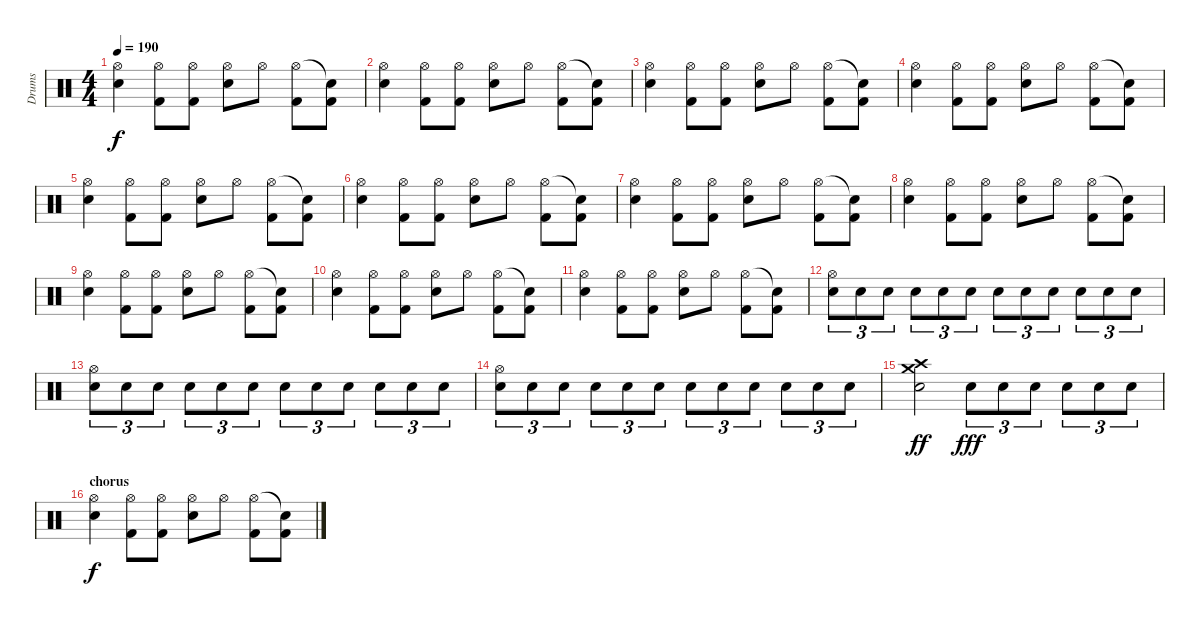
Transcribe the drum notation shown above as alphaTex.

\track ("Drums" "Drums") {instrument percussion}
\staff {score}
\articulation defaults
\ts (4 4)
\tempo 190
\clef neutral
\ks c
("Electric Snare (hit)" "Hi-Hat (open)").4{dy f} ("Hi-Hat (open)" "Kick (hit) 2").8 ("Hi-Hat (open)" "Kick (hit) 2").8 ("Hi-Hat (open)" "Electric Snare (hit)").8 "Hi-Hat (open)".8 ("Kick (hit) 2" "Hi-Hat (open)").8 ("Kick (hit) 2" "Snare (hit)"{t}).8 |
("Electric Snare (hit)" "Hi-Hat (open)").4 ("Hi-Hat (open)" "Kick (hit) 2").8 ("Hi-Hat (open)" "Kick (hit) 2").8 ("Hi-Hat (open)" "Electric Snare (hit)").8 "Hi-Hat (open)".8 ("Kick (hit) 2" "Hi-Hat (open)").8 ("Kick (hit) 2" "Snare (hit)"{t}).8 |
("Electric Snare (hit)" "Hi-Hat (open)").4 ("Hi-Hat (open)" "Kick (hit) 2").8 ("Hi-Hat (open)" "Kick (hit) 2").8 ("Hi-Hat (open)" "Electric Snare (hit)").8 "Hi-Hat (open)".8 ("Kick (hit) 2" "Hi-Hat (open)").8 ("Kick (hit) 2" "Snare (hit)"{t}).8 |
("Electric Snare (hit)" "Hi-Hat (open)").4 ("Hi-Hat (open)" "Kick (hit) 2").8 ("Hi-Hat (open)" "Kick (hit) 2").8 ("Hi-Hat (open)" "Electric Snare (hit)").8 "Hi-Hat (open)".8 ("Kick (hit) 2" "Hi-Hat (open)").8 ("Kick (hit) 2" "Snare (hit)"{t}).8 |
("Electric Snare (hit)" "Hi-Hat (open)").4 ("Hi-Hat (open)" "Kick (hit) 2").8 ("Hi-Hat (open)" "Kick (hit) 2").8 ("Hi-Hat (open)" "Electric Snare (hit)").8 "Hi-Hat (open)".8 ("Kick (hit) 2" "Hi-Hat (open)").8 ("Kick (hit) 2" "Snare (hit)"{t}).8 |
("Electric Snare (hit)" "Hi-Hat (open)").4 ("Hi-Hat (open)" "Kick (hit) 2").8 ("Hi-Hat (open)" "Kick (hit) 2").8 ("Hi-Hat (open)" "Electric Snare (hit)").8 "Hi-Hat (open)".8 ("Kick (hit) 2" "Hi-Hat (open)").8 ("Kick (hit) 2" "Snare (hit)"{t}).8 |
("Electric Snare (hit)" "Hi-Hat (open)").4 ("Hi-Hat (open)" "Kick (hit) 2").8 ("Hi-Hat (open)" "Kick (hit) 2").8 ("Hi-Hat (open)" "Electric Snare (hit)").8 "Hi-Hat (open)".8 ("Kick (hit) 2" "Hi-Hat (open)").8 ("Kick (hit) 2" "Snare (hit)"{t}).8 |
("Electric Snare (hit)" "Hi-Hat (open)").4 ("Hi-Hat (open)" "Kick (hit) 2").8 ("Hi-Hat (open)" "Kick (hit) 2").8 ("Hi-Hat (open)" "Electric Snare (hit)").8 "Hi-Hat (open)".8 ("Kick (hit) 2" "Hi-Hat (open)").8 ("Kick (hit) 2" "Snare (hit)"{t}).8 |
("Electric Snare (hit)" "Hi-Hat (open)").4 ("Hi-Hat (open)" "Kick (hit) 2").8 ("Hi-Hat (open)" "Kick (hit) 2").8 ("Hi-Hat (open)" "Electric Snare (hit)").8 "Hi-Hat (open)".8 ("Kick (hit) 2" "Hi-Hat (open)").8 ("Kick (hit) 2" "Snare (hit)"{t}).8 |
("Electric Snare (hit)" "Hi-Hat (open)").4 ("Hi-Hat (open)" "Kick (hit) 2").8 ("Hi-Hat (open)" "Kick (hit) 2").8 ("Hi-Hat (open)" "Electric Snare (hit)").8 "Hi-Hat (open)".8 ("Kick (hit) 2" "Hi-Hat (open)").8 ("Kick (hit) 2" "Snare (hit)"{t}).8 |
("Electric Snare (hit)" "Hi-Hat (open)").4 ("Hi-Hat (open)" "Kick (hit) 2").8 ("Hi-Hat (open)" "Kick (hit) 2").8 ("Hi-Hat (open)" "Electric Snare (hit)").8 "Hi-Hat (open)".8 ("Kick (hit) 2" "Hi-Hat (open)").8 ("Kick (hit) 2" "Snare (hit)"{t}).8 |
("Electric Snare (hit)" "Hi-Hat (open)").8{tu (3 2)} "Electric Snare (hit)".8{tu (3 2)} "Electric Snare (hit)".8{tu (3 2)} "Electric Snare (hit)".8{tu (3 2)} "Electric Snare (hit)".8{tu (3 2)} "Electric Snare (hit)".8{tu (3 2)} "Electric Snare (hit)".8{tu (3 2)} "Electric Snare (hit)".8{tu (3 2)} "Electric Snare (hit)".8{tu (3 2)} "Electric Snare (hit)".8{tu (3 2)} "Electric Snare (hit)".8{tu (3 2)} "Electric Snare (hit)".8{tu (3 2)} |
("Electric Snare (hit)" "Hi-Hat (open)").8{tu (3 2)} "Electric Snare (hit)".8{tu (3 2)} "Electric Snare (hit)".8{tu (3 2)} "Electric Snare (hit)".8{tu (3 2)} "Electric Snare (hit)".8{tu (3 2)} "Electric Snare (hit)".8{tu (3 2)} "Electric Snare (hit)".8{tu (3 2)} "Electric Snare (hit)".8{tu (3 2)} "Electric Snare (hit)".8{tu (3 2)} "Electric Snare (hit)".8{tu (3 2)} "Electric Snare (hit)".8{tu (3 2)} "Electric Snare (hit)".8{tu (3 2)} |
("Electric Snare (hit)" "Hi-Hat (open)").8{tu (3 2)} "Electric Snare (hit)".8{tu (3 2)} "Electric Snare (hit)".8{tu (3 2)} "Electric Snare (hit)".8{tu (3 2)} "Electric Snare (hit)".8{tu (3 2)} "Electric Snare (hit)".8{tu (3 2)} "Electric Snare (hit)".8{tu (3 2)} "Electric Snare (hit)".8{tu (3 2)} "Electric Snare (hit)".8{tu (3 2)} "Electric Snare (hit)".8{tu (3 2)} "Electric Snare (hit)".8{tu (3 2)} "Electric Snare (hit)".8{tu (3 2)} |
("Electric Snare (hit)" "Crash medium (hit)" "Crash high (hit)").2{dy ff} "Electric Snare (hit)".8{tu (3 2) dy fff} "Electric Snare (hit)".8{tu (3 2)} "Electric Snare (hit)".8{tu (3 2)} "Electric Snare (hit)".8{tu (3 2)} "Electric Snare (hit)".8{tu (3 2)} "Electric Snare (hit)".8{tu (3 2)} |
\section ("" "chorus")
("Electric Snare (hit)" "Hi-Hat (open)").4{dy f} ("Hi-Hat (open)" "Kick (hit) 2").8 ("Hi-Hat (open)" "Kick (hit) 2").8 ("Hi-Hat (open)" "Electric Snare (hit)").8 "Hi-Hat (open)".8 ("Kick (hit) 2" "Hi-Hat (open)").8 ("Kick (hit) 2" "Snare (hit)"{t}).8
